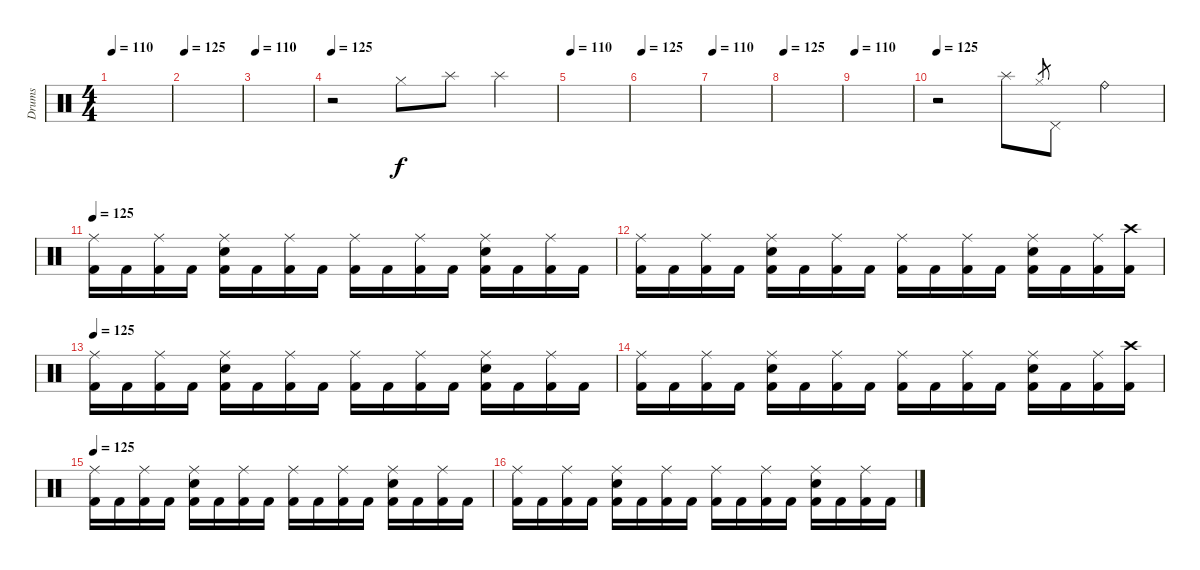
\track ("Drums" "Drums") {instrument percussion}
\staff {score}
\articulation defaults
\ts (4 4)
\tempo 110
\clef neutral
\ks c
|
\tempo 125
|
\tempo 110
|
\tempo 125
r.2 "Hi-Hat (closed)".8 "Splash (hit)".8 "Splash (hit)".4 |
\tempo 110
|
\tempo 125
|
\tempo 110
|
\tempo 125
|
\tempo 110
|
\tempo 125
r.2 "Splash (hit)".8 "Hi-Hat (closed)".8{gr} "Pedal Hi-Hat (hit)".8 "Ride (bell)".4 |
\tempo 125
("Ride (middle)" "Kick (hit) 2").16 "Kick (hit) 2".16 ("Ride (middle)" "Kick (hit) 2").16 "Kick (hit) 2".16 ("Ride (middle)" "Electric Snare (hit)" "Kick (hit) 2").16 "Kick (hit) 2".16 ("Ride (middle)" "Kick (hit) 2").16 "Kick (hit) 2".16 ("Ride (middle)" "Kick (hit) 2").16 "Kick (hit) 2".16 ("Ride (middle)" "Kick (hit) 2").16 "Kick (hit) 2".16 ("Ride (middle)" "Electric Snare (hit)" "Kick (hit) 2").16 "Kick (hit) 2".16 ("Ride (middle)" "Kick (hit) 2").16 "Kick (hit) 2".16 |
("Ride (middle)" "Kick (hit) 2").16 "Kick (hit) 2".16 ("Ride (middle)" "Kick (hit) 2").16 "Kick (hit) 2".16 ("Ride (middle)" "Electric Snare (hit)" "Kick (hit) 2").16 "Kick (hit) 2".16 ("Ride (middle)" "Kick (hit) 2").16 "Kick (hit) 2".16 ("Ride (middle)" "Kick (hit) 2").16 "Kick (hit) 2".16 ("Ride (middle)" "Kick (hit) 2").16 "Kick (hit) 2".16 ("Ride (middle)" "Electric Snare (hit)" "Kick (hit) 2").16 "Kick (hit) 2".16 ("Ride (middle)" "Kick (hit) 2").16 ("Crash high (hit)" "Kick (hit) 2").16 |
\tempo 125
("Ride (middle)" "Kick (hit) 2").16 "Kick (hit) 2".16 ("Ride (middle)" "Kick (hit) 2").16 "Kick (hit) 2".16 ("Ride (middle)" "Electric Snare (hit)" "Kick (hit) 2").16 "Kick (hit) 2".16 ("Ride (middle)" "Kick (hit) 2").16 "Kick (hit) 2".16 ("Ride (middle)" "Kick (hit) 2").16 "Kick (hit) 2".16 ("Ride (middle)" "Kick (hit) 2").16 "Kick (hit) 2".16 ("Ride (middle)" "Electric Snare (hit)" "Kick (hit) 2").16 "Kick (hit) 2".16 ("Ride (middle)" "Kick (hit) 2").16 "Kick (hit) 2".16 |
("Ride (middle)" "Kick (hit) 2").16 "Kick (hit) 2".16 ("Ride (middle)" "Kick (hit) 2").16 "Kick (hit) 2".16 ("Ride (middle)" "Electric Snare (hit)" "Kick (hit) 2").16 "Kick (hit) 2".16 ("Ride (middle)" "Kick (hit) 2").16 "Kick (hit) 2".16 ("Ride (middle)" "Kick (hit) 2").16 "Kick (hit) 2".16 ("Ride (middle)" "Kick (hit) 2").16 "Kick (hit) 2".16 ("Ride (middle)" "Electric Snare (hit)" "Kick (hit) 2").16 "Kick (hit) 2".16 ("Ride (middle)" "Kick (hit) 2").16 ("Crash high (hit)" "Kick (hit) 2").16 |
\tempo 125
("Ride (middle)" "Kick (hit) 2").16 "Kick (hit) 2".16 ("Ride (middle)" "Kick (hit) 2").16 "Kick (hit) 2".16 ("Ride (middle)" "Electric Snare (hit)" "Kick (hit) 2").16 "Kick (hit) 2".16 ("Ride (middle)" "Kick (hit) 2").16 "Kick (hit) 2".16 ("Ride (middle)" "Kick (hit) 2").16 "Kick (hit) 2".16 ("Ride (middle)" "Kick (hit) 2").16 "Kick (hit) 2".16 ("Ride (middle)" "Electric Snare (hit)" "Kick (hit) 2").16 "Kick (hit) 2".16 ("Ride (middle)" "Kick (hit) 2").16 "Kick (hit) 2".16 |
("Ride (middle)" "Kick (hit) 2").16 "Kick (hit) 2".16 ("Ride (middle)" "Kick (hit) 2").16 "Kick (hit) 2".16 ("Ride (middle)" "Electric Snare (hit)" "Kick (hit) 2").16 "Kick (hit) 2".16 ("Ride (middle)" "Kick (hit) 2").16 "Kick (hit) 2".16 ("Ride (middle)" "Kick (hit) 2").16 "Kick (hit) 2".16 ("Ride (middle)" "Kick (hit) 2").16 "Kick (hit) 2".16 ("Ride (middle)" "Electric Snare (hit)" "Kick (hit) 2").16 "Kick (hit) 2".16 ("Ride (middle)" "Kick (hit) 2").16 "Kick (hit) 2".16
